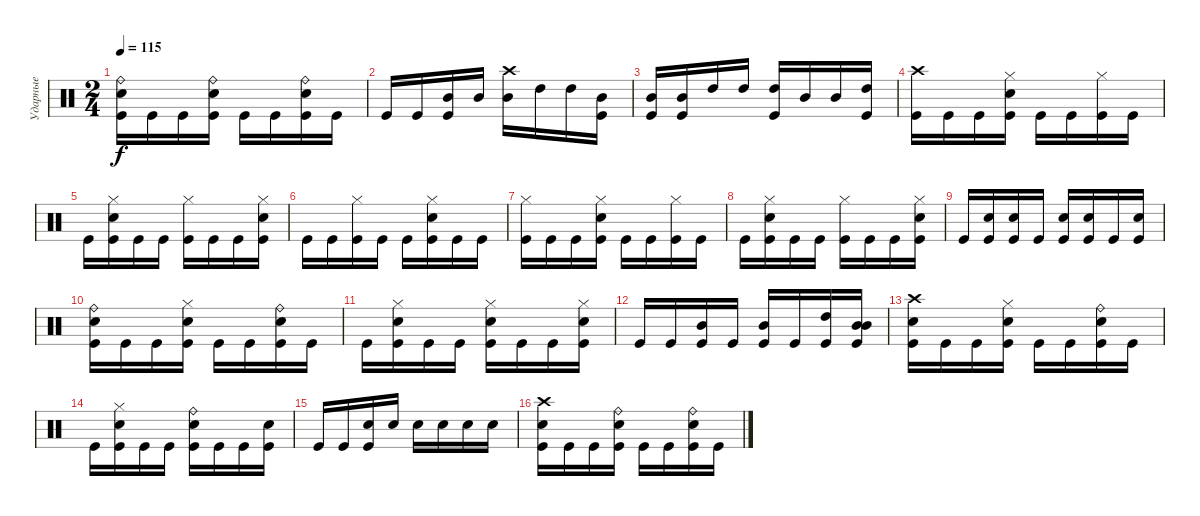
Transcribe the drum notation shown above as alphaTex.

\track ("Ударные" "Ударные") {instrument percussion}
\staff {score}
\articulation defaults
\ts (2 4)
\tempo 115
\clef neutral
\ks c
("Ride (bell)" "Electric Snare (hit)" "Kick (hit)").16{dy f} "Kick (hit)".16 "Kick (hit)".16 ("Ride (bell)" "Electric Snare (hit)" "Kick (hit)").16 "Kick (hit)".16 "Kick (hit)".16 ("Ride (bell)" "Electric Snare (hit)" "Kick (hit)").16 "Kick (hit)".16 |
"Kick (hit)".16 "Kick (hit)".16 ("Mid Tom (hit)" "Kick (hit)").16 "Mid Tom (hit)".16 ("Crash high (hit)" "Mid Tom (hit)").16 "High Tom (hit)".16 "High Tom (hit)".16 ("Mid Tom (hit)" "Kick (hit)").16 |
("Mid Tom (hit)" "Kick (hit)").16 ("Mid Tom (hit)" "Kick (hit)").16 "High Tom (hit)".16 "High Tom (hit)".16 ("High Tom (hit)" "Kick (hit)").16 "Mid Tom (hit)".16 "Mid Tom (hit)".16 ("High Tom (hit)" "Kick (hit)").16 |
("Crash high (hit)" "Kick (hit)").16 "Kick (hit)".16 "Kick (hit)".16 ("Hi-Hat (closed)" "Electric Snare (hit)" "Kick (hit)").16 "Kick (hit)".16 "Kick (hit)".16 ("Hi-Hat (closed)" "Kick (hit)").16 "Kick (hit)".16 |
"Kick (hit)".16 ("Hi-Hat (closed)" "Electric Snare (hit)" "Kick (hit)").16 "Kick (hit)".16 "Kick (hit)".16 ("Hi-Hat (closed)" "Kick (hit)").16 "Kick (hit)".16 "Kick (hit)".16 ("Hi-Hat (closed)" "Electric Snare (hit)" "Kick (hit)").16 |
"Kick (hit)".16 "Kick (hit)".16 ("Hi-Hat (closed)" "Kick (hit)").16 "Kick (hit)".16 "Kick (hit)".16 ("Hi-Hat (closed)" "Electric Snare (hit)" "Kick (hit)").16 "Kick (hit)".16 "Kick (hit)".16 |
("Hi-Hat (closed)" "Kick (hit)").16 "Kick (hit)".16 "Kick (hit)".16 ("Hi-Hat (closed)" "Electric Snare (hit)" "Kick (hit)").16 "Kick (hit)".16 "Kick (hit)".16 ("Hi-Hat (closed)" "Kick (hit)").16 "Kick (hit)".16 |
"Kick (hit)".16 ("Hi-Hat (closed)" "Electric Snare (hit)" "Kick (hit)").16 "Kick (hit)".16 "Kick (hit)".16 ("Hi-Hat (closed)" "Kick (hit)").16 "Kick (hit)".16 "Kick (hit)".16 ("Hi-Hat (closed)" "Electric Snare (hit)" "Kick (hit)").16 |
"Kick (hit)".16 ("Electric Snare (hit)" "Kick (hit)").16 ("Electric Snare (hit)" "Kick (hit)").16 "Kick (hit)".16 ("Electric Snare (hit)" "Kick (hit)").16 ("Electric Snare (hit)" "Kick (hit)").16 "Kick (hit)".16 ("Electric Snare (hit)" "Kick (hit)").16 |
("Ride (bell)" "Electric Snare (hit)" "Kick (hit)").16 "Kick (hit)".16 "Kick (hit)".16 ("Hi-Hat (closed)" "Electric Snare (hit)" "Kick (hit)").16 "Kick (hit)".16 "Kick (hit)".16 ("Ride (bell)" "Electric Snare (hit)" "Kick (hit)").16 "Kick (hit)".16 |
"Kick (hit)".16 ("Hi-Hat (closed)" "Electric Snare (hit)" "Kick (hit)").16 "Kick (hit)".16 "Kick (hit)".16 ("Hi-Hat (closed)" "Electric Snare (hit)" "Kick (hit)").16 "Kick (hit)".16 "Kick (hit)".16 ("Hi-Hat (closed)" "Electric Snare (hit)" "Kick (hit)").16 |
"Kick (hit)".16 "Kick (hit)".16 ("Mid Tom (hit)" "Kick (hit)").16 "Kick (hit)".16 ("Mid Tom (hit)" "Kick (hit)").16 "Kick (hit)".16 ("High Tom (hit)" "Kick (hit)").16 ("Mid Tom (hit)" "Mid Tom (hit)" "Kick (hit)").16 |
("Crash high (hit)" "Electric Snare (hit)" "Kick (hit)").16 "Kick (hit)".16 "Kick (hit)".16 ("Hi-Hat (closed)" "Electric Snare (hit)" "Kick (hit)").16 "Kick (hit)".16 "Kick (hit)".16 ("Ride (bell)" "Electric Snare (hit)" "Kick (hit)").16 "Kick (hit)".16 |
"Kick (hit)".16 ("Hi-Hat (closed)" "Electric Snare (hit)" "Kick (hit)").16 "Kick (hit)".16 "Kick (hit)".16 ("Ride (bell)" "Electric Snare (hit)" "Kick (hit)").16 "Kick (hit)".16 "Kick (hit)".16 ("Electric Snare (hit)" "Kick (hit)").16 |
"Kick (hit)".16 "Kick (hit)".16 ("Electric Snare (hit)" "Kick (hit)").16 "Electric Snare (hit)".16 "Electric Snare (hit)".16 "Electric Snare (hit)".16 "Electric Snare (hit)".16 "Electric Snare (hit)".16 |
("Crash high (hit)" "Electric Snare (hit)" "Kick (hit)").16 "Kick (hit)".16 "Kick (hit)".16 ("Ride (bell)" "Electric Snare (hit)" "Kick (hit)").16 "Kick (hit)".16 "Kick (hit)".16 ("Ride (bell)" "Electric Snare (hit)" "Kick (hit)").16 "Kick (hit)".16
